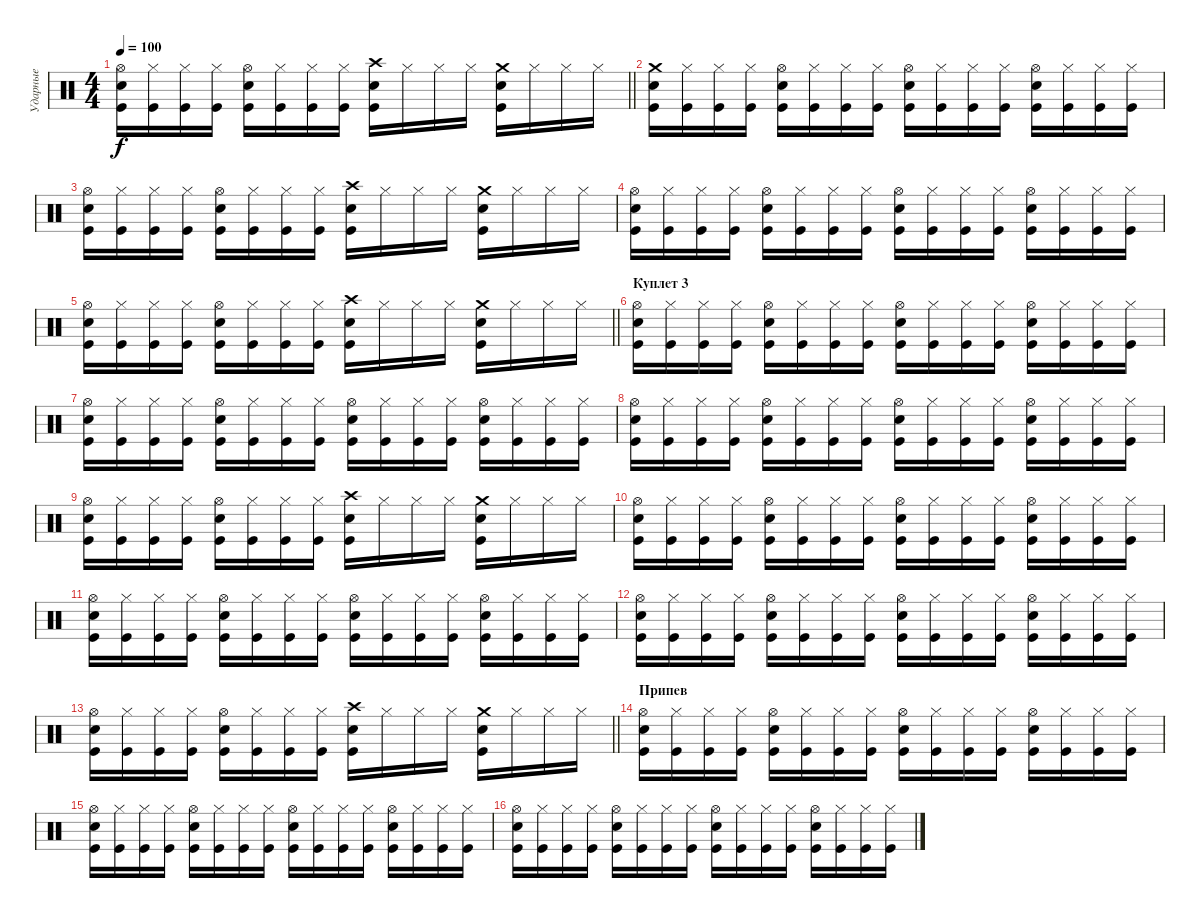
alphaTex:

\track ("Ударные" "Ударные") {instrument percussion}
\staff {score}
\articulation defaults
\ts (4 4)
\tempo 100
\clef neutral
\barLineRight lightlight
\ks c
("Kick (hit)" "Snare (hit) 2" "Hi-Hat (open)").16{dy f} ("Kick (hit)" "Hi-Hat (closed)").16 ("Kick (hit)" "Hi-Hat (closed)").16 ("Kick (hit)" "Hi-Hat (closed)").16 ("Kick (hit)" "Snare (hit) 2" "Hi-Hat (open)").16 ("Kick (hit)" "Hi-Hat (closed)").16 ("Kick (hit)" "Hi-Hat (closed)").16 ("Kick (hit)" "Hi-Hat (closed)").16 ("Crash high (hit)" "Kick (hit)" "Snare (hit) 2").16 "Hi-Hat (closed)".16 "Hi-Hat (closed)".16 "Hi-Hat (closed)".16 ("Crash medium (hit)" "Kick (hit)" "Snare (hit) 2").16 "Hi-Hat (closed)".16 "Hi-Hat (closed)".16 "Hi-Hat (closed)".16 |
("Kick (hit)" "Snare (hit) 2" "Crash medium (hit)").16 ("Kick (hit)" "Hi-Hat (closed)").16 ("Kick (hit)" "Hi-Hat (closed)").16 ("Kick (hit)" "Hi-Hat (closed)").16 ("Kick (hit)" "Snare (hit) 2" "Hi-Hat (open)").16 ("Kick (hit)" "Hi-Hat (closed)").16 ("Kick (hit)" "Hi-Hat (closed)").16 ("Kick (hit)" "Hi-Hat (closed)").16 ("Kick (hit)" "Snare (hit) 2" "Hi-Hat (open)").16 ("Kick (hit)" "Hi-Hat (closed)").16 ("Kick (hit)" "Hi-Hat (closed)").16 ("Kick (hit)" "Hi-Hat (closed)").16 ("Kick (hit)" "Snare (hit) 2" "Hi-Hat (open)").16 ("Kick (hit)" "Hi-Hat (closed)").16 ("Kick (hit)" "Hi-Hat (closed)").16 ("Kick (hit)" "Hi-Hat (closed)").16 |
("Kick (hit)" "Snare (hit) 2" "Hi-Hat (open)").16 ("Kick (hit)" "Hi-Hat (closed)").16 ("Kick (hit)" "Hi-Hat (closed)").16 ("Kick (hit)" "Hi-Hat (closed)").16 ("Kick (hit)" "Snare (hit) 2" "Hi-Hat (open)").16 ("Kick (hit)" "Hi-Hat (closed)").16 ("Kick (hit)" "Hi-Hat (closed)").16 ("Kick (hit)" "Hi-Hat (closed)").16 ("Crash high (hit)" "Kick (hit)" "Snare (hit) 2").16 "Hi-Hat (closed)".16 "Hi-Hat (closed)".16 "Hi-Hat (closed)".16 ("Crash medium (hit)" "Kick (hit)" "Snare (hit) 2").16 "Hi-Hat (closed)".16 "Hi-Hat (closed)".16 "Hi-Hat (closed)".16 |
("Kick (hit)" "Snare (hit) 2" "Hi-Hat (open)").16 ("Kick (hit)" "Hi-Hat (closed)").16 ("Kick (hit)" "Hi-Hat (closed)").16 ("Kick (hit)" "Hi-Hat (closed)").16 ("Kick (hit)" "Snare (hit) 2" "Hi-Hat (open)").16 ("Kick (hit)" "Hi-Hat (closed)").16 ("Kick (hit)" "Hi-Hat (closed)").16 ("Kick (hit)" "Hi-Hat (closed)").16 ("Kick (hit)" "Snare (hit) 2" "Hi-Hat (open)").16 ("Kick (hit)" "Hi-Hat (closed)").16 ("Kick (hit)" "Hi-Hat (closed)").16 ("Kick (hit)" "Hi-Hat (closed)").16 ("Kick (hit)" "Snare (hit) 2" "Hi-Hat (open)").16 ("Kick (hit)" "Hi-Hat (closed)").16 ("Kick (hit)" "Hi-Hat (closed)").16 ("Kick (hit)" "Hi-Hat (closed)").16 |
\barLineRight lightlight
("Kick (hit)" "Snare (hit) 2" "Hi-Hat (open)").16 ("Kick (hit)" "Hi-Hat (closed)").16 ("Kick (hit)" "Hi-Hat (closed)").16 ("Kick (hit)" "Hi-Hat (closed)").16 ("Kick (hit)" "Snare (hit) 2" "Hi-Hat (open)").16 ("Kick (hit)" "Hi-Hat (closed)").16 ("Kick (hit)" "Hi-Hat (closed)").16 ("Kick (hit)" "Hi-Hat (closed)").16 ("Crash high (hit)" "Kick (hit)" "Snare (hit) 2").16 "Hi-Hat (closed)".16 "Hi-Hat (closed)".16 "Hi-Hat (closed)".16 ("Crash medium (hit)" "Kick (hit)" "Snare (hit) 2").16 "Hi-Hat (closed)".16 "Hi-Hat (closed)".16 "Hi-Hat (closed)".16 |
\section ("" "Куплет 3")
("Kick (hit)" "Snare (hit) 2" "Hi-Hat (open)").16 ("Kick (hit)" "Hi-Hat (closed)").16 ("Kick (hit)" "Hi-Hat (closed)").16 ("Kick (hit)" "Hi-Hat (closed)").16 ("Kick (hit)" "Snare (hit) 2" "Hi-Hat (open)").16 ("Kick (hit)" "Hi-Hat (closed)").16 ("Kick (hit)" "Hi-Hat (closed)").16 ("Kick (hit)" "Hi-Hat (closed)").16 ("Kick (hit)" "Snare (hit) 2" "Hi-Hat (open)").16 ("Kick (hit)" "Hi-Hat (closed)").16 ("Kick (hit)" "Hi-Hat (closed)").16 ("Kick (hit)" "Hi-Hat (closed)").16 ("Kick (hit)" "Snare (hit) 2" "Hi-Hat (open)").16 ("Kick (hit)" "Hi-Hat (closed)").16 ("Kick (hit)" "Hi-Hat (closed)").16 ("Kick (hit)" "Hi-Hat (closed)").16 |
("Kick (hit)" "Snare (hit) 2" "Hi-Hat (open)").16 ("Kick (hit)" "Hi-Hat (closed)").16 ("Kick (hit)" "Hi-Hat (closed)").16 ("Kick (hit)" "Hi-Hat (closed)").16 ("Kick (hit)" "Snare (hit) 2" "Hi-Hat (open)").16 ("Kick (hit)" "Hi-Hat (closed)").16 ("Kick (hit)" "Hi-Hat (closed)").16 ("Kick (hit)" "Hi-Hat (closed)").16 ("Kick (hit)" "Snare (hit) 2" "Hi-Hat (open)").16 ("Kick (hit)" "Hi-Hat (closed)").16 ("Kick (hit)" "Hi-Hat (closed)").16 ("Kick (hit)" "Hi-Hat (closed)").16 ("Kick (hit)" "Snare (hit) 2" "Hi-Hat (open)").16 ("Kick (hit)" "Hi-Hat (closed)").16 ("Kick (hit)" "Hi-Hat (closed)").16 ("Kick (hit)" "Hi-Hat (closed)").16 |
("Kick (hit)" "Snare (hit) 2" "Hi-Hat (open)").16 ("Kick (hit)" "Hi-Hat (closed)").16 ("Kick (hit)" "Hi-Hat (closed)").16 ("Kick (hit)" "Hi-Hat (closed)").16 ("Kick (hit)" "Snare (hit) 2" "Hi-Hat (open)").16 ("Kick (hit)" "Hi-Hat (closed)").16 ("Kick (hit)" "Hi-Hat (closed)").16 ("Kick (hit)" "Hi-Hat (closed)").16 ("Kick (hit)" "Snare (hit) 2" "Hi-Hat (open)").16 ("Kick (hit)" "Hi-Hat (closed)").16 ("Kick (hit)" "Hi-Hat (closed)").16 ("Kick (hit)" "Hi-Hat (closed)").16 ("Kick (hit)" "Snare (hit) 2" "Hi-Hat (open)").16 ("Kick (hit)" "Hi-Hat (closed)").16 ("Kick (hit)" "Hi-Hat (closed)").16 ("Kick (hit)" "Hi-Hat (closed)").16 |
("Kick (hit)" "Snare (hit) 2" "Hi-Hat (open)").16 ("Kick (hit)" "Hi-Hat (closed)").16 ("Kick (hit)" "Hi-Hat (closed)").16 ("Kick (hit)" "Hi-Hat (closed)").16 ("Kick (hit)" "Snare (hit) 2" "Hi-Hat (open)").16 ("Kick (hit)" "Hi-Hat (closed)").16 ("Kick (hit)" "Hi-Hat (closed)").16 ("Kick (hit)" "Hi-Hat (closed)").16 ("Crash high (hit)" "Kick (hit)" "Snare (hit) 2").16 "Hi-Hat (closed)".16 "Hi-Hat (closed)".16 "Hi-Hat (closed)".16 ("Crash medium (hit)" "Kick (hit)" "Snare (hit) 2").16 "Hi-Hat (closed)".16 "Hi-Hat (closed)".16 "Hi-Hat (closed)".16 |
("Kick (hit)" "Snare (hit) 2" "Hi-Hat (open)").16 ("Kick (hit)" "Hi-Hat (closed)").16 ("Kick (hit)" "Hi-Hat (closed)").16 ("Kick (hit)" "Hi-Hat (closed)").16 ("Kick (hit)" "Snare (hit) 2" "Hi-Hat (open)").16 ("Kick (hit)" "Hi-Hat (closed)").16 ("Kick (hit)" "Hi-Hat (closed)").16 ("Kick (hit)" "Hi-Hat (closed)").16 ("Kick (hit)" "Snare (hit) 2" "Hi-Hat (open)").16 ("Kick (hit)" "Hi-Hat (closed)").16 ("Kick (hit)" "Hi-Hat (closed)").16 ("Kick (hit)" "Hi-Hat (closed)").16 ("Kick (hit)" "Snare (hit) 2" "Hi-Hat (open)").16 ("Kick (hit)" "Hi-Hat (closed)").16 ("Kick (hit)" "Hi-Hat (closed)").16 ("Kick (hit)" "Hi-Hat (closed)").16 |
("Kick (hit)" "Snare (hit) 2" "Hi-Hat (open)").16 ("Kick (hit)" "Hi-Hat (closed)").16 ("Kick (hit)" "Hi-Hat (closed)").16 ("Kick (hit)" "Hi-Hat (closed)").16 ("Kick (hit)" "Snare (hit) 2" "Hi-Hat (open)").16 ("Kick (hit)" "Hi-Hat (closed)").16 ("Kick (hit)" "Hi-Hat (closed)").16 ("Kick (hit)" "Hi-Hat (closed)").16 ("Kick (hit)" "Snare (hit) 2" "Hi-Hat (open)").16 ("Kick (hit)" "Hi-Hat (closed)").16 ("Kick (hit)" "Hi-Hat (closed)").16 ("Kick (hit)" "Hi-Hat (closed)").16 ("Kick (hit)" "Snare (hit) 2" "Hi-Hat (open)").16 ("Kick (hit)" "Hi-Hat (closed)").16 ("Kick (hit)" "Hi-Hat (closed)").16 ("Kick (hit)" "Hi-Hat (closed)").16 |
("Kick (hit)" "Snare (hit) 2" "Hi-Hat (open)").16 ("Kick (hit)" "Hi-Hat (closed)").16 ("Kick (hit)" "Hi-Hat (closed)").16 ("Kick (hit)" "Hi-Hat (closed)").16 ("Kick (hit)" "Snare (hit) 2" "Hi-Hat (open)").16 ("Kick (hit)" "Hi-Hat (closed)").16 ("Kick (hit)" "Hi-Hat (closed)").16 ("Kick (hit)" "Hi-Hat (closed)").16 ("Kick (hit)" "Snare (hit) 2" "Hi-Hat (open)").16 ("Kick (hit)" "Hi-Hat (closed)").16 ("Kick (hit)" "Hi-Hat (closed)").16 ("Kick (hit)" "Hi-Hat (closed)").16 ("Kick (hit)" "Snare (hit) 2" "Hi-Hat (open)").16 ("Kick (hit)" "Hi-Hat (closed)").16 ("Kick (hit)" "Hi-Hat (closed)").16 ("Kick (hit)" "Hi-Hat (closed)").16 |
\barLineRight lightlight
("Kick (hit)" "Snare (hit) 2" "Hi-Hat (open)").16 ("Kick (hit)" "Hi-Hat (closed)").16 ("Kick (hit)" "Hi-Hat (closed)").16 ("Kick (hit)" "Hi-Hat (closed)").16 ("Kick (hit)" "Snare (hit) 2" "Hi-Hat (open)").16 ("Kick (hit)" "Hi-Hat (closed)").16 ("Kick (hit)" "Hi-Hat (closed)").16 ("Kick (hit)" "Hi-Hat (closed)").16 ("Crash high (hit)" "Kick (hit)" "Snare (hit) 2").16 "Hi-Hat (closed)".16 "Hi-Hat (closed)".16 "Hi-Hat (closed)".16 ("Crash medium (hit)" "Kick (hit)" "Snare (hit) 2").16 "Hi-Hat (closed)".16 "Hi-Hat (closed)".16 "Hi-Hat (closed)".16 |
\section ("" "Припев")
("Kick (hit)" "Snare (hit) 2" "Hi-Hat (open)").16 ("Kick (hit)" "Hi-Hat (closed)").16 ("Kick (hit)" "Hi-Hat (closed)").16 ("Kick (hit)" "Hi-Hat (closed)").16 ("Kick (hit)" "Snare (hit) 2" "Hi-Hat (open)").16 ("Kick (hit)" "Hi-Hat (closed)").16 ("Kick (hit)" "Hi-Hat (closed)").16 ("Kick (hit)" "Hi-Hat (closed)").16 ("Kick (hit)" "Snare (hit) 2" "Hi-Hat (open)").16 ("Kick (hit)" "Hi-Hat (closed)").16 ("Kick (hit)" "Hi-Hat (closed)").16 ("Kick (hit)" "Hi-Hat (closed)").16 ("Kick (hit)" "Snare (hit) 2" "Hi-Hat (open)").16 ("Kick (hit)" "Hi-Hat (closed)").16 ("Kick (hit)" "Hi-Hat (closed)").16 ("Kick (hit)" "Hi-Hat (closed)").16 |
("Kick (hit)" "Snare (hit) 2" "Hi-Hat (open)").16 ("Kick (hit)" "Hi-Hat (closed)").16 ("Kick (hit)" "Hi-Hat (closed)").16 ("Kick (hit)" "Hi-Hat (closed)").16 ("Kick (hit)" "Snare (hit) 2" "Hi-Hat (open)").16 ("Kick (hit)" "Hi-Hat (closed)").16 ("Kick (hit)" "Hi-Hat (closed)").16 ("Kick (hit)" "Hi-Hat (closed)").16 ("Kick (hit)" "Snare (hit) 2" "Hi-Hat (open)").16 ("Kick (hit)" "Hi-Hat (closed)").16 ("Kick (hit)" "Hi-Hat (closed)").16 ("Kick (hit)" "Hi-Hat (closed)").16 ("Kick (hit)" "Snare (hit) 2" "Hi-Hat (open)").16 ("Kick (hit)" "Hi-Hat (closed)").16 ("Kick (hit)" "Hi-Hat (closed)").16 ("Kick (hit)" "Hi-Hat (closed)").16 |
("Kick (hit)" "Snare (hit) 2" "Hi-Hat (open)").16 ("Kick (hit)" "Hi-Hat (closed)").16 ("Kick (hit)" "Hi-Hat (closed)").16 ("Kick (hit)" "Hi-Hat (closed)").16 ("Kick (hit)" "Snare (hit) 2" "Hi-Hat (open)").16 ("Kick (hit)" "Hi-Hat (closed)").16 ("Kick (hit)" "Hi-Hat (closed)").16 ("Kick (hit)" "Hi-Hat (closed)").16 ("Kick (hit)" "Snare (hit) 2" "Hi-Hat (open)").16 ("Kick (hit)" "Hi-Hat (closed)").16 ("Kick (hit)" "Hi-Hat (closed)").16 ("Kick (hit)" "Hi-Hat (closed)").16 ("Kick (hit)" "Snare (hit) 2" "Hi-Hat (open)").16 ("Kick (hit)" "Hi-Hat (closed)").16 ("Kick (hit)" "Hi-Hat (closed)").16 ("Kick (hit)" "Hi-Hat (closed)").16
